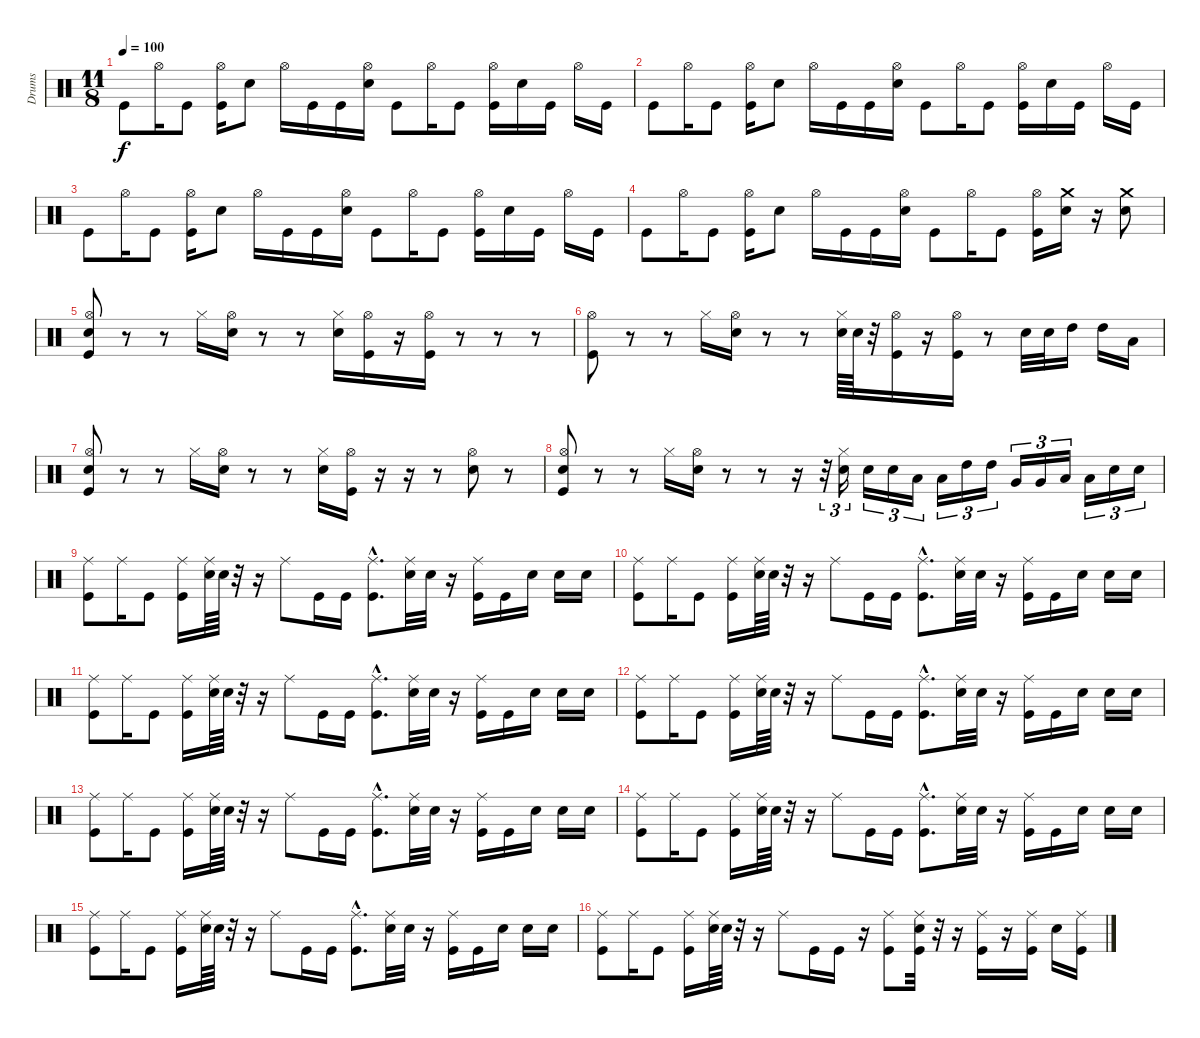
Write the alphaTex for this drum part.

\track ("Drums" "Drums") {instrument percussion}
\staff {score}
\articulation defaults
\ts (11 8)
\tempo 100
\clef neutral
\ks c "Kick (hit)".8{dy f} "Hi-Hat (open)".16 "Kick (hit)".8
("Kick (hit)" "Hi-Hat (open)").16 "Snare (hit) 2".8 "Hi-Hat (open)".16 "Kick (hit)".16 "Kick (hit)".16 ("Snare (hit) 2" "Hi-Hat (open)").16 "Kick (hit)".8 "Hi-Hat (open)".16 "Kick (hit)".8 ("Kick (hit)" "Hi-Hat (open)").16 "Snare (hit) 2".16 "Kick (hit)".16 "Hi-Hat (open)".16 "Kick (hit)".16 |
"Kick (hit)".8 "Hi-Hat (open)".16 "Kick (hit)".8 ("Kick (hit)" "Hi-Hat (open)").16 "Snare (hit) 2".8 "Hi-Hat (open)".16 "Kick (hit)".16 "Kick (hit)".16 ("Snare (hit) 2" "Hi-Hat (open)").16 "Kick (hit)".8 "Hi-Hat (open)".16 "Kick (hit)".8 ("Kick (hit)" "Hi-Hat (open)").16 "Snare (hit) 2".16 "Kick (hit)".16 "Hi-Hat (open)".16 "Kick (hit)".16 |
"Kick (hit)".8 "Hi-Hat (open)".16 "Kick (hit)".8 ("Kick (hit)" "Hi-Hat (open)").16 "Snare (hit) 2".8 "Hi-Hat (open)".16 "Kick (hit)".16 "Kick (hit)".16 ("Snare (hit) 2" "Hi-Hat (open)").16 "Kick (hit)".8 "Hi-Hat (open)".16 "Kick (hit)".8 ("Kick (hit)" "Hi-Hat (open)").16 "Snare (hit) 2".16 "Kick (hit)".16 "Hi-Hat (open)".16 "Kick (hit)".16 |
"Kick (hit)".8 "Hi-Hat (open)".16 "Kick (hit)".8 ("Kick (hit)" "Hi-Hat (open)").16 "Snare (hit) 2".8 "Hi-Hat (open)".16 "Kick (hit)".16 "Kick (hit)".16 ("Snare (hit) 2" "Hi-Hat (open)").16 "Kick (hit)".8 "Hi-Hat (open)".16 "Kick (hit)".8 ("Kick (hit)" "Hi-Hat (open)").16 ("Snare (hit) 2" "Crash medium (hit)").16 r.16 ("Snare (hit) 2" "Crash medium (hit)").8 |
("Kick (hit)" "Snare (hit) 2" "Hi-Hat (open)").8 r.8 r.8 "Hi-Hat (closed)".16 ("Snare (hit) 2" "Hi-Hat (open)").16 r.8 r.8 ("Snare (hit) 2" "Hi-Hat (closed)").16 ("Kick (hit)" "Hi-Hat (open)").16 r.16 ("Kick (hit)" "Hi-Hat (open)").16 r.8 r.8 r.8 |
("Kick (hit)" "Hi-Hat (open)").8 r.8 r.8 "Hi-Hat (closed)".16 ("Snare (hit) 2" "Hi-Hat (open)").16 r.8 r.8 ("Snare (hit) 2" "Hi-Hat (closed)").64 "Snare (hit) 2".64 r.32 ("Kick (hit)" "Hi-Hat (open)").16 r.16 ("Kick (hit)" "Hi-Hat (open)").16 r.8 "Snare (hit) 2".32 "Snare (hit) 2".32 "High Tom (hit)".16 "High Tom (hit)".16 "Low Tom (hit)".16 |
("Kick (hit)" "Snare (hit) 2" "Hi-Hat (open)").8 r.8 r.8 "Hi-Hat (closed)".16 ("Snare (hit) 2" "Hi-Hat (open)").16 r.8 r.8 ("Snare (hit) 2" "Hi-Hat (closed)").16 ("Kick (hit)" "Hi-Hat (open)").16 r.16 r.16 r.8 ("Snare (hit) 2" "Hi-Hat (open)").8 r.8 |
("Kick (hit)" "Snare (hit) 2" "Hi-Hat (open)").8 r.8 r.8 "Hi-Hat (closed)".16 ("Snare (hit) 2" "Hi-Hat (open)").16 r.8 r.8 r.16 r.32{tu (3 2)} ("Snare (hit) 2" "Hi-Hat (closed)").16{tu (3 2)} "Snare (hit) 2".16{tu (3 2)} "Snare (hit) 2".16{tu (3 2)} "Low Tom (hit)".16{tu (3 2)} "Low Tom (hit)".16{tu (3 2)} "High Tom (hit)".16{tu (3 2)} "High Tom (hit)".16{tu (3 2)} "Very Low Tom (hit)".16{tu (3 2)} "Very Low Tom (hit)".16{tu (3 2)} "Low Floor Tom (hit)".16{tu (3 2)} "Low Floor Tom (hit)".16{tu (3 2)} "Snare (hit) 2".16{tu (3 2)} "Snare (hit) 2".16{tu (3 2)} |
("Kick (hit)" "Ride (middle)").8{volume 10} "Ride (middle)".16 "Kick (hit)".8 ("Kick (hit)" "Ride (middle)").16 ("Snare (hit) 2" "Ride (middle)").64 "Snare (hit) 2".64 r.32 r.16 "Ride (middle)".8 "Kick (hit)".16 "Kick (hit)".16 ("Kick (hit)"{hac} "Ride (middle)"{hac}).8{d} ("Snare (hit) 2" "Ride (middle)").32 "Snare (hit) 2".32 r.16 ("Kick (hit)" "Ride (middle)").16 "Kick (hit)".16 "Snare (hit) 2".16 "Snare (hit) 2".16 "Snare (hit) 2".16 |
("Kick (hit)" "Ride (middle)").8{volume 10} "Ride (middle)".16 "Kick (hit)".8 ("Kick (hit)" "Ride (middle)").16 ("Snare (hit) 2" "Ride (middle)").64 "Snare (hit) 2".64 r.32 r.16 "Ride (middle)".8 "Kick (hit)".16 "Kick (hit)".16 ("Kick (hit)"{hac} "Ride (middle)"{hac}).8{d} ("Snare (hit) 2" "Ride (middle)").32 "Snare (hit) 2".32 r.16 ("Kick (hit)" "Ride (middle)").16 "Kick (hit)".16 "Snare (hit) 2".16 "Snare (hit) 2".16 "Snare (hit) 2".16 |
("Kick (hit)" "Ride (middle)").8{volume 10} "Ride (middle)".16 "Kick (hit)".8 ("Kick (hit)" "Ride (middle)").16 ("Snare (hit) 2" "Ride (middle)").64 "Snare (hit) 2".64 r.32 r.16 "Ride (middle)".8 "Kick (hit)".16 "Kick (hit)".16 ("Kick (hit)"{hac} "Ride (middle)"{hac}).8{d} ("Snare (hit) 2" "Ride (middle)").32 "Snare (hit) 2".32 r.16 ("Kick (hit)" "Ride (middle)").16 "Kick (hit)".16 "Snare (hit) 2".16 "Snare (hit) 2".16 "Snare (hit) 2".16 |
("Kick (hit)" "Ride (middle)").8{volume 10} "Ride (middle)".16 "Kick (hit)".8 ("Kick (hit)" "Ride (middle)").16 ("Snare (hit) 2" "Ride (middle)").64 "Snare (hit) 2".64 r.32 r.16 "Ride (middle)".8 "Kick (hit)".16 "Kick (hit)".16 ("Kick (hit)"{hac} "Ride (middle)"{hac}).8{d} ("Snare (hit) 2" "Ride (middle)").32 "Snare (hit) 2".32 r.16 ("Kick (hit)" "Ride (middle)").16 "Kick (hit)".16 "Snare (hit) 2".16 "Snare (hit) 2".16 "Snare (hit) 2".16 |
("Kick (hit)" "Ride (middle)").8{volume 10} "Ride (middle)".16 "Kick (hit)".8 ("Kick (hit)" "Ride (middle)").16 ("Snare (hit) 2" "Ride (middle)").64 "Snare (hit) 2".64 r.32 r.16 "Ride (middle)".8 "Kick (hit)".16 "Kick (hit)".16 ("Kick (hit)"{hac} "Ride (middle)"{hac}).8{d} ("Snare (hit) 2" "Ride (middle)").32 "Snare (hit) 2".32 r.16 ("Kick (hit)" "Ride (middle)").16 "Kick (hit)".16 "Snare (hit) 2".16 "Snare (hit) 2".16 "Snare (hit) 2".16 |
("Kick (hit)" "Ride (middle)").8{volume 10} "Ride (middle)".16 "Kick (hit)".8 ("Kick (hit)" "Ride (middle)").16 ("Snare (hit) 2" "Ride (middle)").64 "Snare (hit) 2".64 r.32 r.16 "Ride (middle)".8 "Kick (hit)".16 "Kick (hit)".16 ("Kick (hit)"{hac} "Ride (middle)"{hac}).8{d} ("Snare (hit) 2" "Ride (middle)").32 "Snare (hit) 2".32 r.16 ("Kick (hit)" "Ride (middle)").16 "Kick (hit)".16 "Snare (hit) 2".16 "Snare (hit) 2".16 "Snare (hit) 2".16 |
("Kick (hit)" "Ride (middle)").8{volume 10} "Ride (middle)".16 "Kick (hit)".8 ("Kick (hit)" "Ride (middle)").16 ("Snare (hit) 2" "Ride (middle)").64 "Snare (hit) 2".64 r.32 r.16 "Ride (middle)".8 "Kick (hit)".16 "Kick (hit)".16 ("Kick (hit)"{hac} "Ride (middle)"{hac}).8{d} ("Snare (hit) 2" "Ride (middle)").32 "Snare (hit) 2".32 r.16 ("Kick (hit)" "Ride (middle)").16 "Kick (hit)".16 "Snare (hit) 2".16 "Snare (hit) 2".16 "Snare (hit) 2".16 |
("Kick (hit)" "Ride (middle)").8{volume 10} "Ride (middle)".16 "Kick (hit)".8 ("Kick (hit)" "Ride (middle)").16 ("Snare (hit) 2" "Ride (middle)").64 "Snare (hit) 2".64 r.32 r.16 "Ride (middle)".8 "Kick (hit)".16 "Kick (hit)".16 r.16 ("Kick (hit)" "Ride (middle)").8 ("Kick (hit)" "Snare (hit) 2" "Ride (middle)").32 r.32 r.16 ("Kick (hit)" "Ride (middle)").16 r.16 ("Kick (hit)" "Ride (middle)").16 "Snare (hit) 2".16 ("Kick (hit)" "Ride (middle)").16
